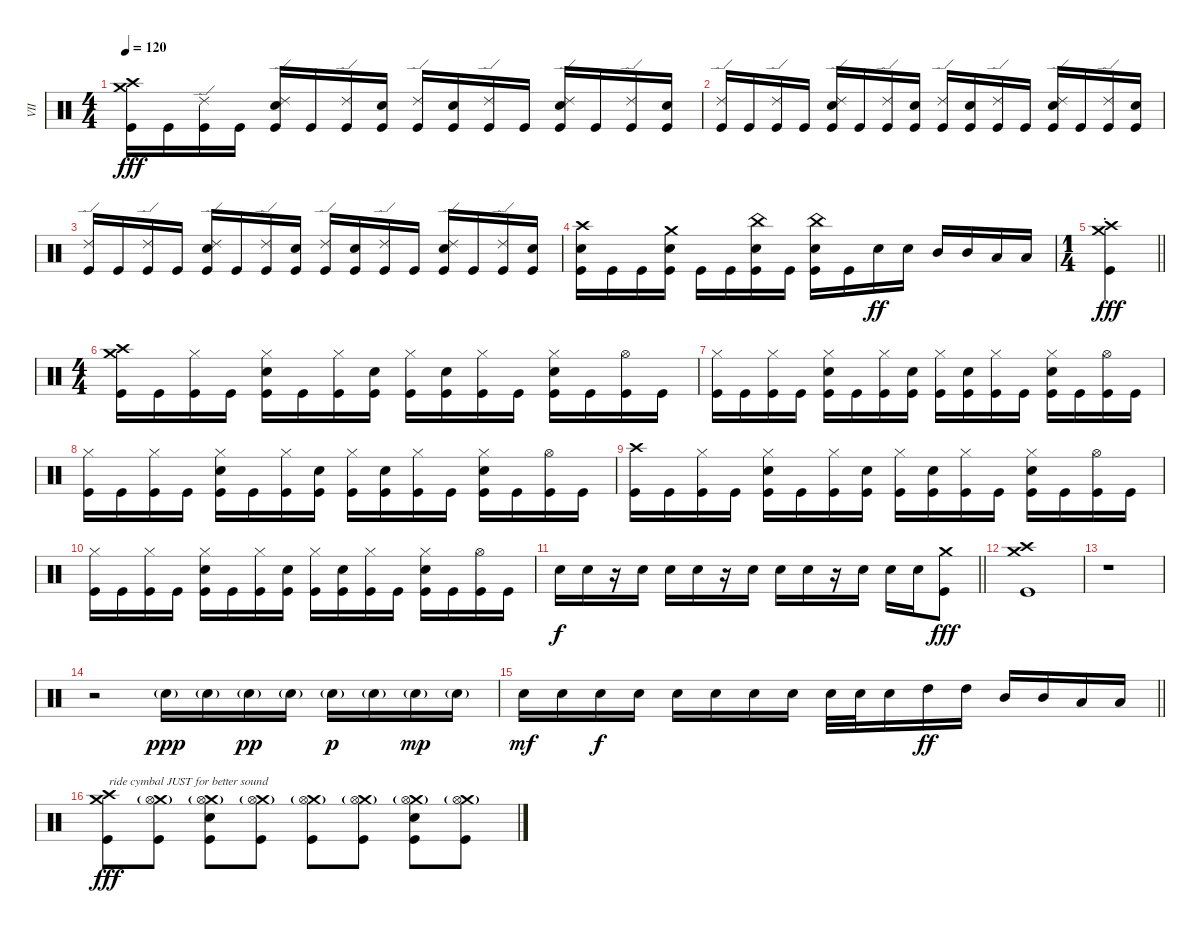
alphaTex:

\track ("VII" "VII") {instrument percussion}
\staff {score}
\articulation defaults
\ts (4 4)
\tempo 120
\clef neutral
\ks c
("Crash high (hit)" "Crash medium (hit)" "Kick (hit)").16{dy fff} "Kick (hit)".16 ("Ride (edge) 2" "Kick (hit)").16 "Kick (hit)".16 ("Ride (edge) 2" "Snare (hit) 2" "Kick (hit)").16 "Kick (hit)".16 ("Ride (edge) 2" "Kick (hit)").16 ("Snare (hit) 2" "Kick (hit)").16 ("Ride (edge) 2" "Kick (hit)").16 ("Snare (hit) 2" "Kick (hit)").16 ("Ride (edge) 2" "Kick (hit)").16 "Kick (hit)".16 ("Ride (edge) 2" "Snare (hit) 2" "Kick (hit)").16 "Kick (hit)".16 ("Ride (edge) 2" "Kick (hit)").16 ("Snare (hit) 2" "Kick (hit)").16 |
("Ride (edge) 2" "Kick (hit)").16 "Kick (hit)".16 ("Ride (edge) 2" "Kick (hit)").16 "Kick (hit)".16 ("Ride (edge) 2" "Snare (hit) 2" "Kick (hit)").16 "Kick (hit)".16 ("Ride (edge) 2" "Kick (hit)").16 ("Snare (hit) 2" "Kick (hit)").16 ("Ride (edge) 2" "Kick (hit)").16 ("Snare (hit) 2" "Kick (hit)").16 ("Ride (edge) 2" "Kick (hit)").16 "Kick (hit)".16 ("Ride (edge) 2" "Snare (hit) 2" "Kick (hit)").16 "Kick (hit)".16 ("Ride (edge) 2" "Kick (hit)").16 ("Snare (hit) 2" "Kick (hit)").16 |
("Ride (edge) 2" "Kick (hit)").16 "Kick (hit)".16 ("Ride (edge) 2" "Kick (hit)").16 "Kick (hit)".16 ("Ride (edge) 2" "Snare (hit) 2" "Kick (hit)").16 "Kick (hit)".16 ("Ride (edge) 2" "Kick (hit)").16 ("Snare (hit) 2" "Kick (hit)").16 ("Ride (edge) 2" "Kick (hit)").16 ("Snare (hit) 2" "Kick (hit)").16 ("Ride (edge) 2" "Kick (hit)").16 "Kick (hit)".16 ("Ride (edge) 2" "Snare (hit) 2" "Kick (hit)").16 "Kick (hit)".16 ("Ride (edge) 2" "Kick (hit)").16 ("Snare (hit) 2" "Kick (hit)").16 |
("Crash high (hit)" "Snare (hit) 2" "Kick (hit)").16 "Kick (hit)".16 "Kick (hit)".16 ("Crash medium (hit)" "Snare (hit) 2" "Kick (hit)").16 "Kick (hit)".16 "Kick (hit)".16 ("China (hit)" "Snare (hit) 2" "Kick (hit)").16 "Kick (hit)".16 ("China (hit)" "Snare (hit) 2" "Kick (hit)").16 "Kick (hit)".16 "Snare (hit) 2".16{dy ff} "Snare (hit) 2".16 "Mid Tom (hit)".16 "Mid Tom (hit)".16 "Low Tom (hit)".16 "Low Tom (hit)".16 |
\ts (1 4)
\barLineRight lightlight
("Crash high (hit)"{st} "Crash medium (hit)"{st} "Kick (hit)"{st}).4{dy fff} |
\ts (4 4)
("Crash high (hit)" "Crash medium (hit)" "Kick (hit)").16 "Kick (hit)".16 ("Hi-Hat (closed)" "Kick (hit)").16 "Kick (hit)".16 ("Hi-Hat (closed)" "Snare (hit) 2" "Kick (hit)").16 "Kick (hit)".16 ("Hi-Hat (closed)" "Kick (hit)").16 ("Snare (hit) 2" "Kick (hit)").16 ("Hi-Hat (closed)" "Kick (hit)").16 ("Snare (hit) 2" "Kick (hit)").16 ("Hi-Hat (closed)" "Kick (hit)").16 "Kick (hit)".16 ("Hi-Hat (closed)" "Snare (hit) 2" "Kick (hit)").16 "Kick (hit)".16 ("Hi-Hat (open)" "Kick (hit)").16 "Kick (hit)".16 |
("Hi-Hat (closed)" "Kick (hit)").16 "Kick (hit)".16 ("Hi-Hat (closed)" "Kick (hit)").16 "Kick (hit)".16 ("Hi-Hat (closed)" "Snare (hit) 2" "Kick (hit)").16 "Kick (hit)".16 ("Hi-Hat (closed)" "Kick (hit)").16 ("Snare (hit) 2" "Kick (hit)").16 ("Hi-Hat (closed)" "Kick (hit)").16 ("Snare (hit) 2" "Kick (hit)").16 ("Hi-Hat (closed)" "Kick (hit)").16 "Kick (hit)".16 ("Hi-Hat (closed)" "Snare (hit) 2" "Kick (hit)").16 "Kick (hit)".16 ("Hi-Hat (open)" "Kick (hit)").16 "Kick (hit)".16 |
("Hi-Hat (closed)" "Kick (hit)").16 "Kick (hit)".16 ("Hi-Hat (closed)" "Kick (hit)").16 "Kick (hit)".16 ("Hi-Hat (closed)" "Snare (hit) 2" "Kick (hit)").16 "Kick (hit)".16 ("Hi-Hat (closed)" "Kick (hit)").16 ("Snare (hit) 2" "Kick (hit)").16 ("Hi-Hat (closed)" "Kick (hit)").16 ("Snare (hit) 2" "Kick (hit)").16 ("Hi-Hat (closed)" "Kick (hit)").16 "Kick (hit)".16 ("Hi-Hat (closed)" "Snare (hit) 2" "Kick (hit)").16 "Kick (hit)".16 ("Hi-Hat (open)" "Kick (hit)").16 "Kick (hit)".16 |
("Crash high (hit)" "Kick (hit)").16 "Kick (hit)".16 ("Hi-Hat (closed)" "Kick (hit)").16 "Kick (hit)".16 ("Hi-Hat (closed)" "Snare (hit) 2" "Kick (hit)").16 "Kick (hit)".16 ("Hi-Hat (closed)" "Kick (hit)").16 ("Snare (hit) 2" "Kick (hit)").16 ("Hi-Hat (closed)" "Kick (hit)").16 ("Snare (hit) 2" "Kick (hit)").16 ("Hi-Hat (closed)" "Kick (hit)").16 "Kick (hit)".16 ("Hi-Hat (closed)" "Snare (hit) 2" "Kick (hit)").16 "Kick (hit)".16 ("Hi-Hat (open)" "Kick (hit)").16 "Kick (hit)".16 |
("Hi-Hat (closed)" "Kick (hit)").16 "Kick (hit)".16 ("Hi-Hat (closed)" "Kick (hit)").16 "Kick (hit)".16 ("Hi-Hat (closed)" "Snare (hit) 2" "Kick (hit)").16 "Kick (hit)".16 ("Hi-Hat (closed)" "Kick (hit)").16 ("Snare (hit) 2" "Kick (hit)").16 ("Hi-Hat (closed)" "Kick (hit)").16 ("Snare (hit) 2" "Kick (hit)").16 ("Hi-Hat (closed)" "Kick (hit)").16 "Kick (hit)".16 ("Hi-Hat (closed)" "Snare (hit) 2" "Kick (hit)").16 "Kick (hit)".16 ("Hi-Hat (open)" "Kick (hit)").16 "Kick (hit)".16 |
\barLineRight lightlight "Snare (hit) 2".16{dy f} "Snare (hit) 2".16
r.16 "Snare (hit) 2".16 "Snare (hit) 2".16 "Snare (hit) 2".16 r.16 "Snare (hit) 2".16 "Snare (hit) 2".16 "Snare (hit) 2".16 r.16 "Snare (hit) 2".16 "Snare (hit) 2".16 "Snare (hit) 2".16 ("Crash medium (hit)" "Kick (hit)").8{dy fff} |
("Crash high (hit)" "Crash medium (hit)" "Kick (hit)").1 |
r.1 |
r.2 "Snare (hit) 2"{g}.16{dy ppp} "Snare (hit) 2"{g}.16 "Snare (hit) 2"{g}.16{dy pp} "Snare (hit) 2"{g}.16 "Snare (hit) 2"{g}.16{dy p} "Snare (hit) 2"{g}.16 "Snare (hit) 2"{g}.16{dy mp} "Snare (hit) 2"{g}.16 |
\barLineRight lightlight "Snare (hit) 2".16{dy mf} "Snare (hit) 2".16 "Snare (hit) 2".16{dy f} "Snare (hit) 2".16 "Snare (hit) 2".16 "Snare (hit) 2".16 "Snare (hit) 2".16 "Snare (hit) 2".16 "Snare (hit) 2".32 "Snare (hit) 2".32 "Snare (hit) 2".16 "High Tom (hit)".16{dy ff} "High Tom (hit)".16 "Mid Tom (hit)".16 "Mid Tom (hit)".16 "Low Tom (hit)".16 "Low Tom (hit)".16
|
("Crash high (hit)" "Crash medium (hit)" "Kick (hit)").8{txt "ride cymbal JUST for better sound" dy fff} ("Crash medium (hit)"{g} "Hi-Hat (open)" "Kick (hit)").8 ("Crash medium (hit)"{g} "Hi-Hat (open)" "Snare (hit) 2" "Kick (hit)").8 ("Crash medium (hit)"{g} "Hi-Hat (open)" "Kick (hit)").8 ("Crash medium (hit)"{g} "Hi-Hat (open)" "Kick (hit)").8 ("Crash medium (hit)"{g} "Hi-Hat (open)" "Kick (hit)").8 ("Crash medium (hit)"{g} "Hi-Hat (open)" "Snare (hit) 2" "Kick (hit)").8 ("Crash medium (hit)"{g} "Hi-Hat (open)" "Kick (hit)").8
